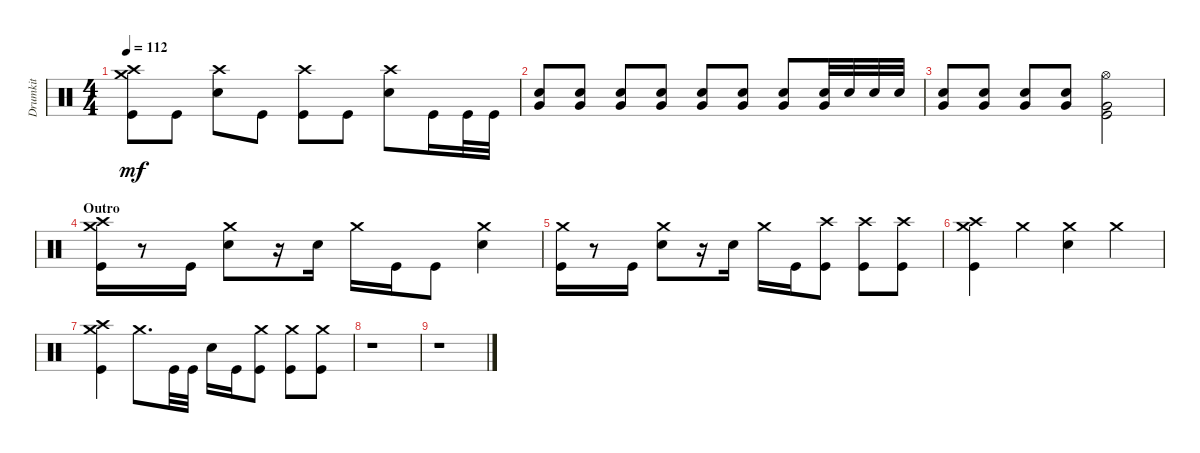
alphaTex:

\track ("Drumkit" "Drumkit") {instrument percussion}
\staff {score}
\articulation defaults
\ts (4 4)
\tempo 112
\clef neutral
\ks c
("Crash medium (hit)" "Crash high (hit)" "Kick (hit)").8{dy mf} "Kick (hit)".8 ("Snare (hit) 2" "Crash high (hit)").8 "Kick (hit)".8 ("Kick (hit)" "Crash high (hit)").8 "Kick (hit)".8 ("Snare (hit) 2" "Crash high (hit)").8 "Kick (hit)".16 "Kick (hit)".32 "Kick (hit)".32 |
("Snare (hit) 2" "Very Low Tom (hit)").8 ("Snare (hit) 2" "Very Low Tom (hit)").8 ("Snare (hit) 2" "Very Low Tom (hit)").8 ("Snare (hit) 2" "Very Low Tom (hit)").8 ("Snare (hit) 2" "Very Low Tom (hit)").8 ("Snare (hit) 2" "Very Low Tom (hit)").8 ("Snare (hit) 2" "Very Low Tom (hit)").8 ("Snare (hit) 2" "Very Low Tom (hit)").32 "Snare (hit) 2".32 "Snare (hit) 2".32 "Snare (hit) 2".32 |
("Snare (hit) 2" "Very Low Tom (hit)").8 ("Snare (hit) 2" "Very Low Tom (hit)").8 ("Snare (hit) 2" "Very Low Tom (hit)").8 ("Snare (hit) 2" "Very Low Tom (hit)").8 ("Very Low Tom (hit)" "Kick (hit)" "Hi-Hat (open)").2 |
\section ("" "Outro")
("Kick (hit)" "Crash high (hit)" "Crash medium (hit)").16 r.8 "Kick (hit)".16 ("Snare (hit) 2" "Crash medium (hit)").8 r.16 "Snare (hit) 2".16 "Crash medium (hit)".16 "Kick (hit)".16 "Kick (hit)".8 ("Snare (hit) 2" "Crash medium (hit)").4 |
("Kick (hit)" "Crash medium (hit)").16 r.8 "Kick (hit)".16 ("Snare (hit) 2" "Crash medium (hit)").8 r.16 "Snare (hit) 2".16 "Crash medium (hit)".16 "Kick (hit)".16 ("Kick (hit)" "Crash high (hit)").8 ("Kick (hit)" "Crash high (hit)").8 ("Kick (hit)" "Crash high (hit)").8 |
("Crash high (hit)" "Crash medium (hit)" "Kick (hit)").4 "Crash medium (hit)".4 ("Snare (hit) 2" "Crash medium (hit)").4 "Crash medium (hit)".4 |
("Crash high (hit)" "Crash medium (hit)" "Kick (hit)").4 "Crash medium (hit)".8{d} "Kick (hit)".32 "Kick (hit)".32 "Snare (hit) 2".16 "Kick (hit)".16 ("Kick (hit)" "Crash medium (hit)").8 ("Kick (hit)" "Crash medium (hit)").8 ("Kick (hit)" "Crash medium (hit)").8 |
r.1 |
r.1
